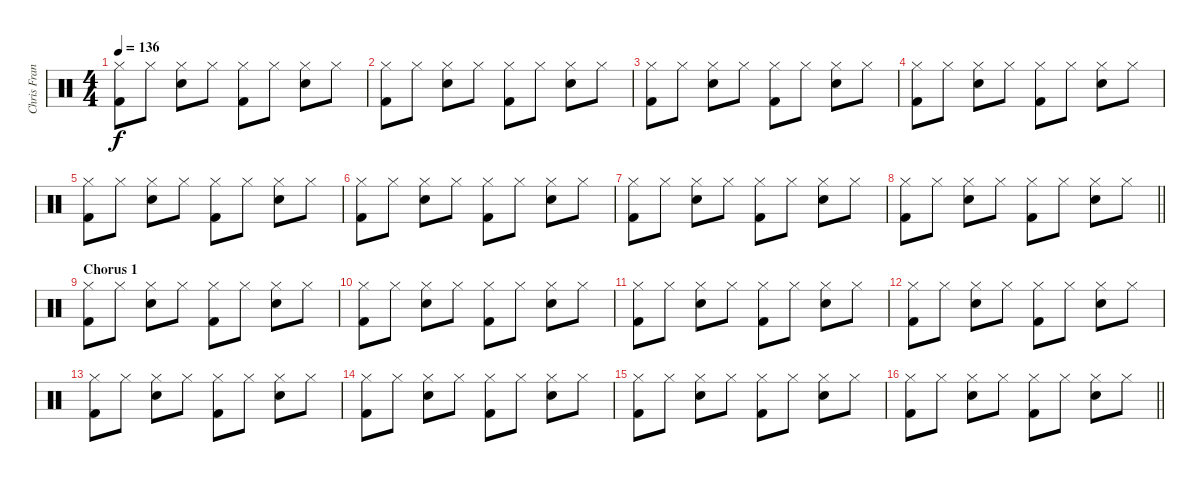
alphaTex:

\track ("Chris Frantz" "Chris Fran") {instrument percussion}
\staff {score}
\articulation defaults
\ts (4 4)
\tempo 136
\clef neutral
\ks c
("Hi-Hat (closed)" "Kick (hit) 2").8{dy f} "Hi-Hat (closed)".8 ("Hi-Hat (closed)" "Electric Snare (hit)").8 "Hi-Hat (closed)".8 ("Hi-Hat (closed)" "Kick (hit) 2").8 "Hi-Hat (closed)".8 ("Hi-Hat (closed)" "Electric Snare (hit)").8 "Hi-Hat (closed)".8 |
("Hi-Hat (closed)" "Kick (hit) 2").8 "Hi-Hat (closed)".8 ("Hi-Hat (closed)" "Electric Snare (hit)").8 "Hi-Hat (closed)".8 ("Hi-Hat (closed)" "Kick (hit) 2").8 "Hi-Hat (closed)".8 ("Hi-Hat (closed)" "Electric Snare (hit)").8 "Hi-Hat (closed)".8 |
("Hi-Hat (closed)" "Kick (hit) 2").8 "Hi-Hat (closed)".8 ("Hi-Hat (closed)" "Electric Snare (hit)").8 "Hi-Hat (closed)".8 ("Hi-Hat (closed)" "Kick (hit) 2").8 "Hi-Hat (closed)".8 ("Hi-Hat (closed)" "Electric Snare (hit)").8 "Hi-Hat (closed)".8 |
("Hi-Hat (closed)" "Kick (hit) 2").8 "Hi-Hat (closed)".8 ("Hi-Hat (closed)" "Electric Snare (hit)").8 "Hi-Hat (closed)".8 ("Hi-Hat (closed)" "Kick (hit) 2").8 "Hi-Hat (closed)".8 ("Hi-Hat (closed)" "Electric Snare (hit)").8 "Hi-Hat (closed)".8 |
("Hi-Hat (closed)" "Kick (hit) 2").8 "Hi-Hat (closed)".8 ("Hi-Hat (closed)" "Electric Snare (hit)").8 "Hi-Hat (closed)".8 ("Hi-Hat (closed)" "Kick (hit) 2").8 "Hi-Hat (closed)".8 ("Hi-Hat (closed)" "Electric Snare (hit)").8 "Hi-Hat (closed)".8 |
("Hi-Hat (closed)" "Kick (hit) 2").8 "Hi-Hat (closed)".8 ("Hi-Hat (closed)" "Electric Snare (hit)").8 "Hi-Hat (closed)".8 ("Hi-Hat (closed)" "Kick (hit) 2").8 "Hi-Hat (closed)".8 ("Hi-Hat (closed)" "Electric Snare (hit)").8 "Hi-Hat (closed)".8 |
("Hi-Hat (closed)" "Kick (hit) 2").8 "Hi-Hat (closed)".8 ("Hi-Hat (closed)" "Electric Snare (hit)").8 "Hi-Hat (closed)".8 ("Hi-Hat (closed)" "Kick (hit) 2").8 "Hi-Hat (closed)".8 ("Hi-Hat (closed)" "Electric Snare (hit)").8 "Hi-Hat (closed)".8 |
\barLineRight lightlight
("Hi-Hat (closed)" "Kick (hit) 2").8 "Hi-Hat (closed)".8 ("Hi-Hat (closed)" "Electric Snare (hit)").8 "Hi-Hat (closed)".8 ("Hi-Hat (closed)" "Kick (hit) 2").8 "Hi-Hat (closed)".8 ("Hi-Hat (closed)" "Electric Snare (hit)").8 "Hi-Hat (closed)".8 |
\section ("" "Chorus 1")
("Hi-Hat (closed)" "Kick (hit) 2").8 "Hi-Hat (closed)".8 ("Hi-Hat (closed)" "Electric Snare (hit)").8 "Hi-Hat (closed)".8 ("Hi-Hat (closed)" "Kick (hit) 2").8 "Hi-Hat (closed)".8 ("Hi-Hat (closed)" "Electric Snare (hit)").8 "Hi-Hat (closed)".8 |
("Hi-Hat (closed)" "Kick (hit) 2").8 "Hi-Hat (closed)".8 ("Hi-Hat (closed)" "Electric Snare (hit)").8 "Hi-Hat (closed)".8 ("Hi-Hat (closed)" "Kick (hit) 2").8 "Hi-Hat (closed)".8 ("Hi-Hat (closed)" "Electric Snare (hit)").8 "Hi-Hat (closed)".8 |
("Hi-Hat (closed)" "Kick (hit) 2").8 "Hi-Hat (closed)".8 ("Hi-Hat (closed)" "Electric Snare (hit)").8 "Hi-Hat (closed)".8 ("Hi-Hat (closed)" "Kick (hit) 2").8 "Hi-Hat (closed)".8 ("Hi-Hat (closed)" "Electric Snare (hit)").8 "Hi-Hat (closed)".8 |
("Hi-Hat (closed)" "Kick (hit) 2").8 "Hi-Hat (closed)".8 ("Hi-Hat (closed)" "Electric Snare (hit)").8 "Hi-Hat (closed)".8 ("Hi-Hat (closed)" "Kick (hit) 2").8 "Hi-Hat (closed)".8 ("Hi-Hat (closed)" "Electric Snare (hit)").8 "Hi-Hat (closed)".8 |
("Hi-Hat (closed)" "Kick (hit) 2").8 "Hi-Hat (closed)".8 ("Hi-Hat (closed)" "Electric Snare (hit)").8 "Hi-Hat (closed)".8 ("Hi-Hat (closed)" "Kick (hit) 2").8 "Hi-Hat (closed)".8 ("Hi-Hat (closed)" "Electric Snare (hit)").8 "Hi-Hat (closed)".8 |
("Hi-Hat (closed)" "Kick (hit) 2").8 "Hi-Hat (closed)".8 ("Hi-Hat (closed)" "Electric Snare (hit)").8 "Hi-Hat (closed)".8 ("Hi-Hat (closed)" "Kick (hit) 2").8 "Hi-Hat (closed)".8 ("Hi-Hat (closed)" "Electric Snare (hit)").8 "Hi-Hat (closed)".8 |
("Hi-Hat (closed)" "Kick (hit) 2").8 "Hi-Hat (closed)".8 ("Hi-Hat (closed)" "Electric Snare (hit)").8 "Hi-Hat (closed)".8 ("Hi-Hat (closed)" "Kick (hit) 2").8 "Hi-Hat (closed)".8 ("Hi-Hat (closed)" "Electric Snare (hit)").8 "Hi-Hat (closed)".8 |
\barLineRight lightlight
("Hi-Hat (closed)" "Kick (hit) 2").8 "Hi-Hat (closed)".8 ("Hi-Hat (closed)" "Electric Snare (hit)").8 "Hi-Hat (closed)".8 ("Hi-Hat (closed)" "Kick (hit) 2").8 "Hi-Hat (closed)".8 ("Hi-Hat (closed)" "Electric Snare (hit)").8 "Hi-Hat (closed)".8
